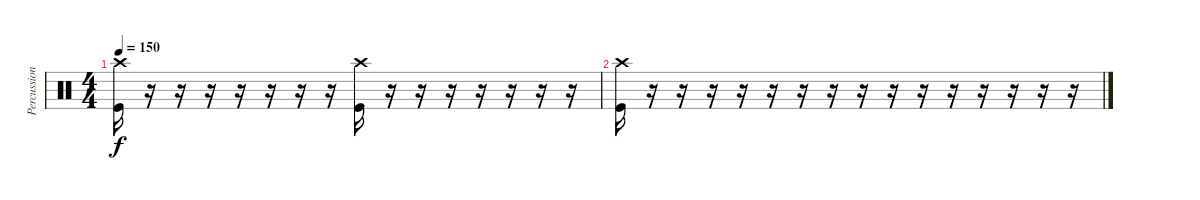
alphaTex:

\track ("Percussion" "Percussion") {instrument percussion}
\staff {score}
\articulation defaults
\ts (4 4)
\tempo 150
\clef neutral
\ks c
("Crash high (hit)" "Kick (hit)").16{dy f} r.16 r.16 r.16 r.16 r.16 r.16 r.16 ("Crash high (hit)" "Kick (hit)").16 r.16 r.16 r.16 r.16 r.16 r.16 r.16 |
("Crash high (hit)" "Kick (hit)").16 r.16 r.16 r.16 r.16 r.16 r.16 r.16 r.16 r.16 r.16 r.16 r.16 r.16 r.16 r.16
